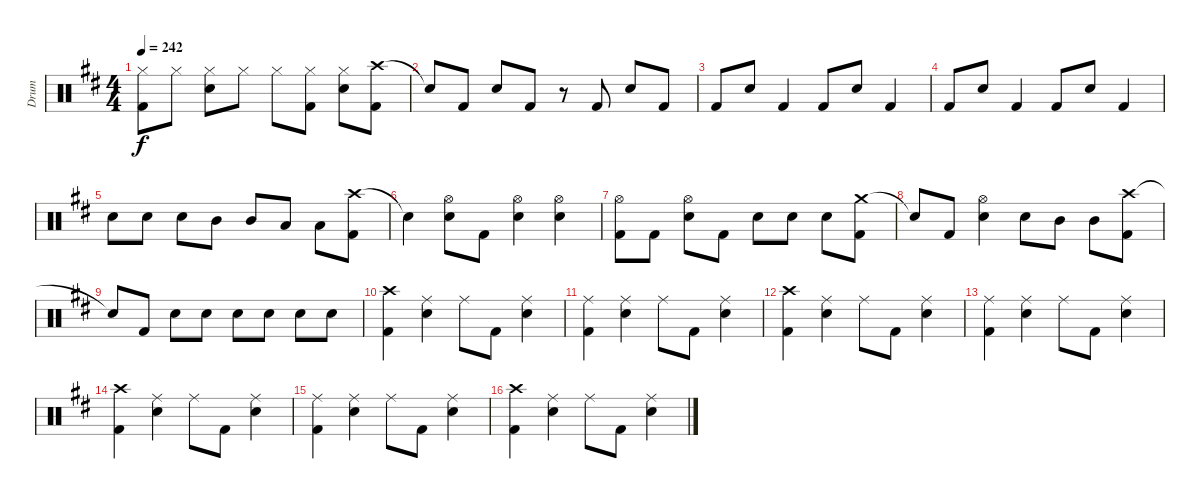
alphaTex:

\track ("Drum" "Drum") {instrument percussion}
\staff {score}
\articulation defaults
\ts (4 4)
\tempo 242
\clef neutral
\ks d
("Hi-Hat (closed)" "Kick (hit) 2").8{dy f} "Hi-Hat (closed)".8 ("Hi-Hat (closed)" "Snare (hit) 2").8 "Hi-Hat (closed)".8 "Hi-Hat (closed)".8 ("Hi-Hat (closed)" "Kick (hit) 2").8 ("Hi-Hat (closed)" "Snare (hit) 2").8 ("Crash high (hit)" "Kick (hit) 2").8 |
"Snare (hit)"{t}.8 "Kick (hit) 2".8 "Snare (hit) 2".8 "Kick (hit) 2".8 r.8 "Kick (hit) 2".8 "Snare (hit) 2".8 "Kick (hit) 2".8 |
"Kick (hit) 2".8 "Snare (hit) 2".8 "Kick (hit) 2".4 "Kick (hit) 2".8 "Snare (hit) 2".8 "Kick (hit) 2".4 |
"Kick (hit) 2".8 "Snare (hit) 2".8 "Kick (hit) 2".4 "Kick (hit) 2".8 "Snare (hit) 2".8 "Kick (hit) 2".4 |
"Snare (hit) 2".8 "Snare (hit) 2".8 "Snare (hit) 2".8 "Mid Tom (hit)".8 "Mid Tom (hit)".8 "Low Tom (hit)".8 "Low Tom (hit)".8 ("Crash high (hit)" "Kick (hit) 2").8 |
"Snare (hit)"{t}.4 ("Hi-Hat (open)" "Snare (hit) 2").8 "Kick (hit) 2".8 ("Hi-Hat (open)" "Snare (hit) 2").4 ("Hi-Hat (open)" "Snare (hit) 2").4 |
("Hi-Hat (open)" "Kick (hit) 2").8 "Kick (hit) 2".8 ("Hi-Hat (open)" "Snare (hit) 2").8 "Kick (hit) 2".8 "Snare (hit) 2".8 "Snare (hit) 2".8 "Snare (hit) 2".8 ("Crash medium (hit)" "Kick (hit) 2").8 |
"Snare (hit)"{t}.8 "Kick (hit) 2".8 ("Hi-Hat (open)" "Snare (hit) 2").4 "Snare (hit) 2".8 "Mid Tom (hit)".8 "Mid Tom (hit)".8 ("Crash high (hit)" "Kick (hit) 2").8 |
"Snare (hit)"{t}.8 "Kick (hit) 2".8 "Snare (hit) 2".8 "Snare (hit) 2".8 "Snare (hit) 2".8 "Snare (hit) 2".8 "Snare (hit) 2".8 "Snare (hit) 2".8 |
("Crash high (hit)" "Kick (hit) 2").4 ("Ride (middle)" "Snare (hit) 2").4 "Ride (middle)".8 "Kick (hit) 2".8 ("Ride (middle)" "Snare (hit) 2").4 |
("Ride (middle)" "Kick (hit) 2").4 ("Ride (middle)" "Snare (hit) 2").4 "Ride (middle)".8 "Kick (hit) 2".8 ("Ride (middle)" "Snare (hit) 2").4 |
("Crash high (hit)" "Kick (hit) 2").4 ("Ride (middle)" "Snare (hit) 2").4 "Ride (middle)".8 "Kick (hit) 2".8 ("Ride (middle)" "Snare (hit) 2").4 |
("Ride (middle)" "Kick (hit) 2").4 ("Ride (middle)" "Snare (hit) 2").4 "Ride (middle)".8 "Kick (hit) 2".8 ("Ride (middle)" "Snare (hit) 2").4 |
("Crash high (hit)" "Kick (hit) 2").4 ("Ride (middle)" "Snare (hit) 2").4 "Ride (middle)".8 "Kick (hit) 2".8 ("Ride (middle)" "Snare (hit) 2").4 |
("Ride (middle)" "Kick (hit) 2").4 ("Ride (middle)" "Snare (hit) 2").4 "Ride (middle)".8 "Kick (hit) 2".8 ("Ride (middle)" "Snare (hit) 2").4 |
("Crash high (hit)" "Kick (hit) 2").4 ("Ride (middle)" "Snare (hit) 2").4 "Ride (middle)".8 "Kick (hit) 2".8 ("Ride (middle)" "Snare (hit) 2").4
